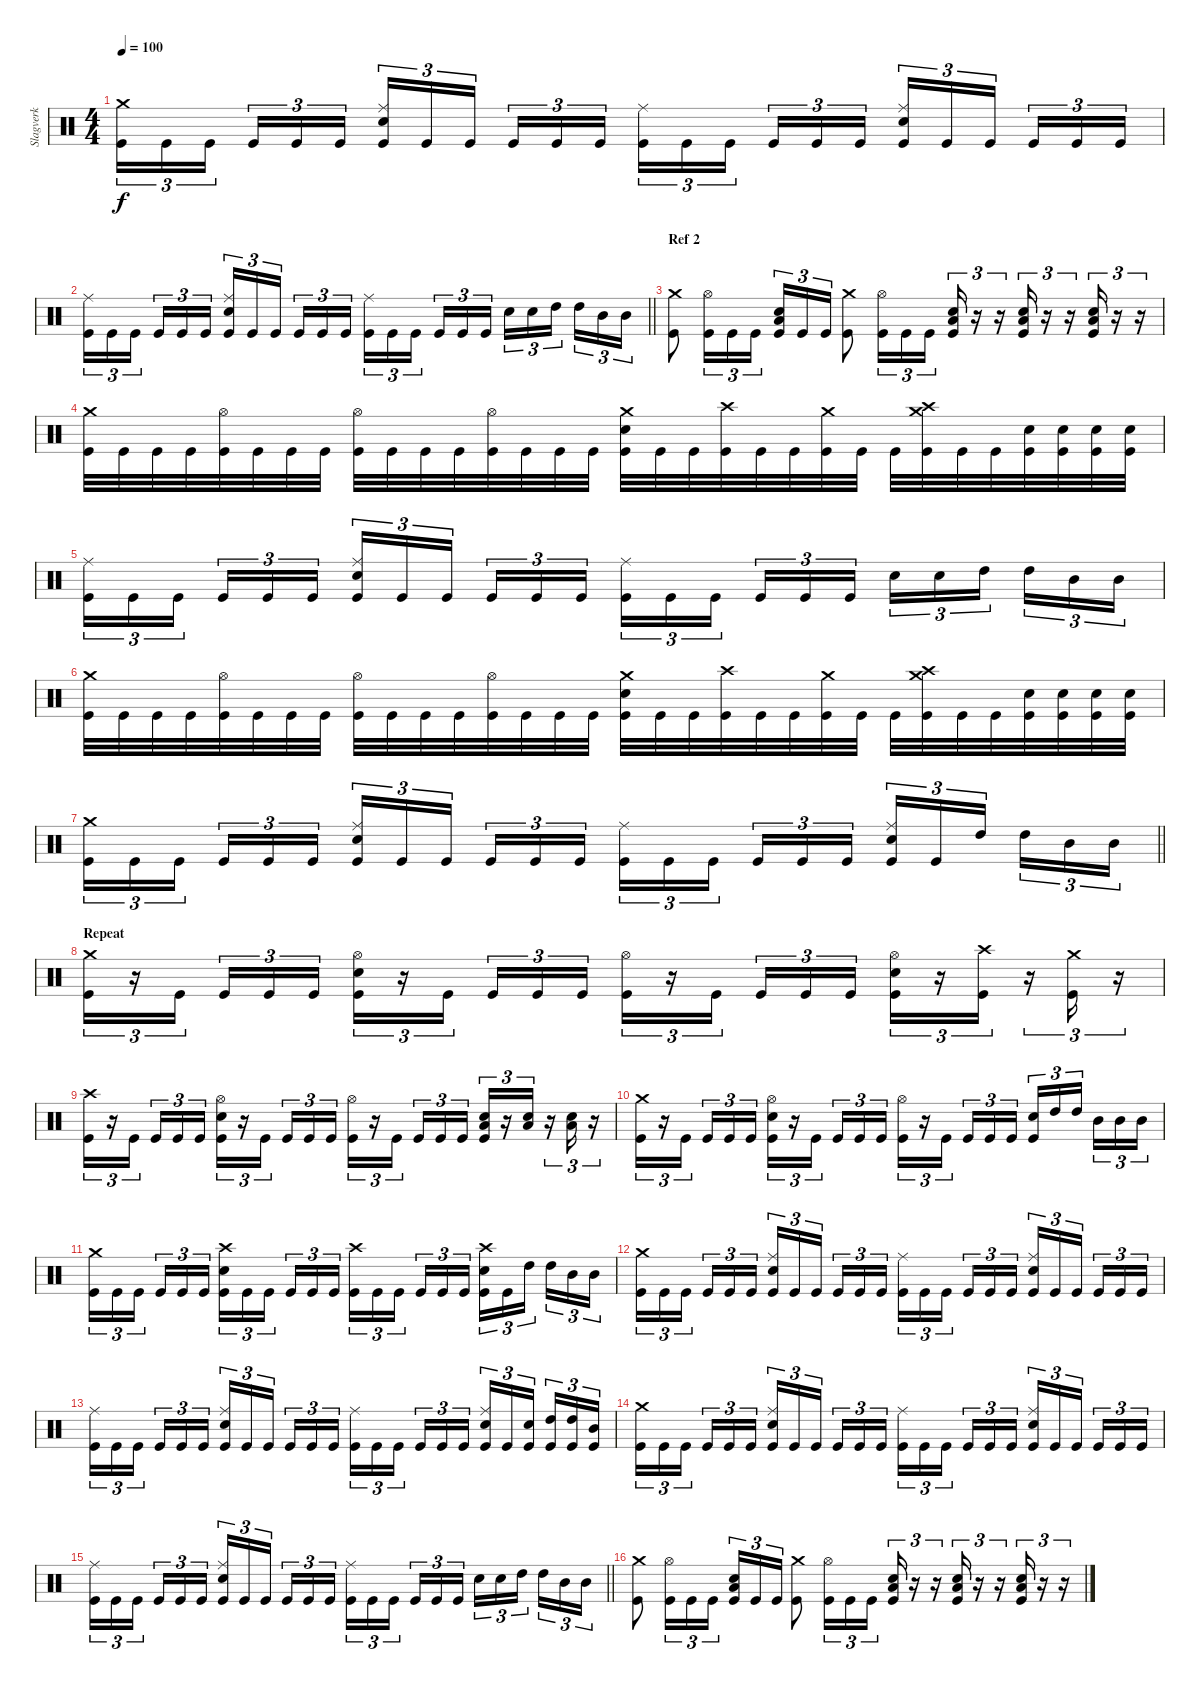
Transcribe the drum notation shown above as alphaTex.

\track ("Slagverk" "Slagverk") {solo instrument percussion}
\staff {score}
\articulation defaults
\ts (4 4)
\tempo 100
\clef neutral
\ks c
("Crash medium (hit)" "Kick (hit)").16{tu (3 2) dy f} "Kick (hit)".16{tu (3 2)} "Kick (hit)".16{tu (3 2) beam splitsecondary} "Kick (hit)".16{tu (3 2)} "Kick (hit)".16{tu (3 2)} "Kick (hit)".16{tu (3 2)} ("Ride (middle)" "Electric Snare (hit)" "Kick (hit)").16{tu (3 2)} "Kick (hit)".16{tu (3 2)} "Kick (hit)".16{tu (3 2) beam splitsecondary} "Kick (hit)".16{tu (3 2)} "Kick (hit)".16{tu (3 2)} "Kick (hit)".16{tu (3 2)} ("Ride (middle)" "Kick (hit)").16{tu (3 2)} "Kick (hit)".16{tu (3 2)} "Kick (hit)".16{tu (3 2) beam splitsecondary} "Kick (hit)".16{tu (3 2)} "Kick (hit)".16{tu (3 2)} "Kick (hit)".16{tu (3 2)} ("Ride (middle)" "Electric Snare (hit)" "Kick (hit)").16{tu (3 2)} "Kick (hit)".16{tu (3 2)} "Kick (hit)".16{tu (3 2) beam splitsecondary} "Kick (hit)".16{tu (3 2)} "Kick (hit)".16{tu (3 2)} "Kick (hit)".16{tu (3 2)} |
\barLineRight lightlight
("Ride (middle)" "Kick (hit)").16{tu (3 2)} "Kick (hit)".16{tu (3 2)} "Kick (hit)".16{tu (3 2) beam splitsecondary} "Kick (hit)".16{tu (3 2)} "Kick (hit)".16{tu (3 2)} "Kick (hit)".16{tu (3 2)} ("Ride (middle)" "Electric Snare (hit)" "Kick (hit)").16{tu (3 2)} "Kick (hit)".16{tu (3 2)} "Kick (hit)".16{tu (3 2) beam splitsecondary} "Kick (hit)".16{tu (3 2)} "Kick (hit)".16{tu (3 2)} "Kick (hit)".16{tu (3 2)} ("Ride (middle)" "Kick (hit)").16{tu (3 2)} "Kick (hit)".16{tu (3 2)} "Kick (hit)".16{tu (3 2) beam splitsecondary} "Kick (hit)".16{tu (3 2)} "Kick (hit)".16{tu (3 2)} "Kick (hit)".16{tu (3 2)} "Electric Snare (hit)".16{tu (3 2)} "Electric Snare (hit)".16{tu (3 2)} "High Tom (hit)".16{tu (3 2) beam splitsecondary} "High Tom (hit)".16{tu (3 2)} "Mid Tom (hit)".16{tu (3 2)} "Mid Tom (hit)".16{tu (3 2)} |
\section ("" "Ref 2")
("Crash medium (hit)" "Kick (hit)").8 ("Hi-Hat (open)" "Kick (hit)").16{tu (3 2)} "Kick (hit)".16{tu (3 2)} "Kick (hit)".16{tu (3 2)} ("Low Tom (hit)" "Electric Snare (hit)" "Kick (hit)").16{tu (3 2)} "Kick (hit)".16{tu (3 2)} "Kick (hit)".16{tu (3 2)} ("Crash medium (hit)" "Kick (hit)").8 ("Hi-Hat (open)" "Kick (hit)").16{tu (3 2)} "Kick (hit)".16{tu (3 2)} "Kick (hit)".16{tu (3 2) beam splitsecondary} ("Low Floor Tom (hit)" "Electric Snare (hit)" "Kick (hit)").16{tu (3 2)} r.16{tu (3 2)} r.16{tu (3 2)} ("Low Floor Tom (hit)" "Electric Snare (hit)" "Kick (hit)").16{tu (3 2)} r.16{tu (3 2)} r.16{tu (3 2)} ("Low Floor Tom (hit)" "Electric Snare (hit)" "Kick (hit)").16{tu (3 2)} r.16{tu (3 2)} r.16{tu (3 2)} |
("Crash medium (hit)" "Kick (hit)").32 "Kick (hit)".32 "Kick (hit)".32 "Kick (hit)".32 ("Hi-Hat (open)" "Kick (hit)").32 "Kick (hit)".32 "Kick (hit)".32 "Kick (hit)".32 ("Hi-Hat (open)" "Kick (hit)").32 "Kick (hit)".32 "Kick (hit)".32 "Kick (hit)".32 ("Hi-Hat (open)" "Kick (hit)").32 "Kick (hit)".32 "Kick (hit)".32 "Kick (hit)".32 ("Crash medium (hit)" "Electric Snare (hit)" "Kick (hit)").32 "Kick (hit)".32 "Kick (hit)".32 ("Crash high (hit)" "Kick (hit)").32 "Kick (hit)".32 "Kick (hit)".32 ("Crash medium (hit)" "Kick (hit)").32 "Kick (hit)".32 "Kick (hit)".32 ("Crash medium (hit)" "Crash high (hit)" "Kick (hit)").32 "Kick (hit)".32 "Kick (hit)".32 ("Snare (hit) 2" "Kick (hit)").32 ("Snare (hit) 2" "Kick (hit)").32 ("Snare (hit) 2" "Kick (hit)").32 ("Snare (hit) 2" "Kick (hit)").32 |
("Ride (middle)" "Kick (hit)").16{tu (3 2)} "Kick (hit)".16{tu (3 2)} "Kick (hit)".16{tu (3 2) beam splitsecondary} "Kick (hit)".16{tu (3 2)} "Kick (hit)".16{tu (3 2)} "Kick (hit)".16{tu (3 2)} ("Ride (middle)" "Electric Snare (hit)" "Kick (hit)").16{tu (3 2)} "Kick (hit)".16{tu (3 2)} "Kick (hit)".16{tu (3 2) beam splitsecondary} "Kick (hit)".16{tu (3 2)} "Kick (hit)".16{tu (3 2)} "Kick (hit)".16{tu (3 2)} ("Ride (middle)" "Kick (hit)").16{tu (3 2)} "Kick (hit)".16{tu (3 2)} "Kick (hit)".16{tu (3 2) beam splitsecondary} "Kick (hit)".16{tu (3 2)} "Kick (hit)".16{tu (3 2)} "Kick (hit)".16{tu (3 2)} "Electric Snare (hit)".16{tu (3 2)} "Electric Snare (hit)".16{tu (3 2)} "High Tom (hit)".16{tu (3 2) beam splitsecondary} "High Tom (hit)".16{tu (3 2)} "Mid Tom (hit)".16{tu (3 2)} "Mid Tom (hit)".16{tu (3 2)} |
("Crash medium (hit)" "Kick (hit)").32 "Kick (hit)".32 "Kick (hit)".32 "Kick (hit)".32 ("Hi-Hat (open)" "Kick (hit)").32 "Kick (hit)".32 "Kick (hit)".32 "Kick (hit)".32 ("Hi-Hat (open)" "Kick (hit)").32 "Kick (hit)".32 "Kick (hit)".32 "Kick (hit)".32 ("Hi-Hat (open)" "Kick (hit)").32 "Kick (hit)".32 "Kick (hit)".32 "Kick (hit)".32 ("Crash medium (hit)" "Electric Snare (hit)" "Kick (hit)").32 "Kick (hit)".32 "Kick (hit)".32 ("Crash high (hit)" "Kick (hit)").32 "Kick (hit)".32 "Kick (hit)".32 ("Crash medium (hit)" "Kick (hit)").32 "Kick (hit)".32 "Kick (hit)".32 ("Crash medium (hit)" "Crash high (hit)" "Kick (hit)").32 "Kick (hit)".32 "Kick (hit)".32 ("Snare (hit) 2" "Kick (hit)").32 ("Snare (hit) 2" "Kick (hit)").32 ("Snare (hit) 2" "Kick (hit)").32 ("Snare (hit) 2" "Kick (hit)").32 |
\barLineRight lightlight
("Crash medium (hit)" "Kick (hit)").16{tu (3 2)} "Kick (hit)".16{tu (3 2)} "Kick (hit)".16{tu (3 2) beam splitsecondary} "Kick (hit)".16{tu (3 2)} "Kick (hit)".16{tu (3 2)} "Kick (hit)".16{tu (3 2)} ("Ride (middle)" "Electric Snare (hit)" "Kick (hit)").16{tu (3 2)} "Kick (hit)".16{tu (3 2)} "Kick (hit)".16{tu (3 2) beam splitsecondary} "Kick (hit)".16{tu (3 2)} "Kick (hit)".16{tu (3 2)} "Kick (hit)".16{tu (3 2)} ("Ride (middle)" "Kick (hit)").16{tu (3 2)} "Kick (hit)".16{tu (3 2)} "Kick (hit)".16{tu (3 2) beam splitsecondary} "Kick (hit)".16{tu (3 2)} "Kick (hit)".16{tu (3 2)} "Kick (hit)".16{tu (3 2)} ("Ride (middle)" "Electric Snare (hit)" "Kick (hit)").16{tu (3 2)} "Kick (hit)".16{tu (3 2)} "High Tom (hit)".16{tu (3 2) beam splitsecondary} "High Tom (hit)".16{tu (3 2)} "Mid Tom (hit)".16{tu (3 2)} "Mid Tom (hit)".16{tu (3 2)} |
\section ("" "Repeat")
("Crash medium (hit)" "Kick (hit)").16{tu (3 2)} r.16{tu (3 2)} "Kick (hit)".16{tu (3 2) beam splitsecondary} "Kick (hit)".16{tu (3 2)} "Kick (hit)".16{tu (3 2)} "Kick (hit)".16{tu (3 2)} ("Hi-Hat (open)" "Electric Snare (hit)" "Kick (hit)").16{tu (3 2)} r.16{tu (3 2)} "Kick (hit)".16{tu (3 2) beam splitsecondary} "Kick (hit)".16{tu (3 2)} "Kick (hit)".16{tu (3 2)} "Kick (hit)".16{tu (3 2)} ("Hi-Hat (open)" "Kick (hit)").16{tu (3 2)} r.16{tu (3 2)} "Kick (hit)".16{tu (3 2) beam splitsecondary} "Kick (hit)".16{tu (3 2)} "Kick (hit)".16{tu (3 2)} "Kick (hit)".16{tu (3 2)} ("Hi-Hat (open)" "Electric Snare (hit)" "Kick (hit)").16{tu (3 2)} r.16{tu (3 2)} ("Crash high (hit)" "Kick (hit)").16{tu (3 2)} r.16{tu (3 2)} ("Crash medium (hit)" "Kick (hit)").16{tu (3 2)} r.16{tu (3 2)} |
("Crash high (hit)" "Kick (hit)").16{tu (3 2)} r.16{tu (3 2)} "Kick (hit)".16{tu (3 2) beam splitsecondary} "Kick (hit)".16{tu (3 2)} "Kick (hit)".16{tu (3 2)} "Kick (hit)".16{tu (3 2)} ("Hi-Hat (open)" "Electric Snare (hit)" "Kick (hit)").16{tu (3 2)} r.16{tu (3 2)} "Kick (hit)".16{tu (3 2) beam splitsecondary} "Kick (hit)".16{tu (3 2)} "Kick (hit)".16{tu (3 2)} "Kick (hit)".16{tu (3 2)} ("Hi-Hat (open)" "Kick (hit)").16{tu (3 2)} r.16{tu (3 2)} "Kick (hit)".16{tu (3 2) beam splitsecondary} "Kick (hit)".16{tu (3 2)} "Kick (hit)".16{tu (3 2)} "Kick (hit)".16{tu (3 2)} ("Low Floor Tom (hit)" "Electric Snare (hit)" "Kick (hit)").16{tu (3 2)} r.16{tu (3 2)} ("Low Floor Tom (hit)" "Electric Snare (hit)").16{tu (3 2)} r.16{tu (3 2)} ("Low Floor Tom (hit)" "Electric Snare (hit)").16{tu (3 2)} r.16{tu (3 2)} |
("Crash medium (hit)" "Kick (hit)").16{tu (3 2)} r.16{tu (3 2)} "Kick (hit)".16{tu (3 2) beam splitsecondary} "Kick (hit)".16{tu (3 2)} "Kick (hit)".16{tu (3 2)} "Kick (hit)".16{tu (3 2)} ("Hi-Hat (open)" "Electric Snare (hit)" "Kick (hit)").16{tu (3 2)} r.16{tu (3 2)} "Kick (hit)".16{tu (3 2) beam splitsecondary} "Kick (hit)".16{tu (3 2)} "Kick (hit)".16{tu (3 2)} "Kick (hit)".16{tu (3 2)} ("Hi-Hat (open)" "Kick (hit)").16{tu (3 2)} r.16{tu (3 2)} "Kick (hit)".16{tu (3 2) beam splitsecondary} "Kick (hit)".16{tu (3 2)} "Kick (hit)".16{tu (3 2)} "Kick (hit)".16{tu (3 2)} ("Electric Snare (hit)" "Kick (hit)").16{tu (3 2)} "High Tom (hit)".16{tu (3 2)} "High Tom (hit)".16{tu (3 2) beam splitsecondary} "Mid Tom (hit)".16{tu (3 2)} "Mid Tom (hit)".16{tu (3 2)} "Mid Tom (hit)".16{tu (3 2)} |
("Crash medium (hit)" "Kick (hit)").16{tu (3 2)} "Kick (hit)".16{tu (3 2)} "Kick (hit)".16{tu (3 2) beam splitsecondary} "Kick (hit)".16{tu (3 2)} "Kick (hit)".16{tu (3 2)} "Kick (hit)".16{tu (3 2)} ("Crash high (hit)" "Electric Snare (hit)" "Kick (hit)").16{tu (3 2)} "Kick (hit)".16{tu (3 2)} "Kick (hit)".16{tu (3 2) beam splitsecondary} "Kick (hit)".16{tu (3 2)} "Kick (hit)".16{tu (3 2)} "Kick (hit)".16{tu (3 2)} ("Crash high (hit)" "Kick (hit)").16{tu (3 2)} "Kick (hit)".16{tu (3 2)} "Kick (hit)".16{tu (3 2) beam splitsecondary} "Kick (hit)".16{tu (3 2)} "Kick (hit)".16{tu (3 2)} "Kick (hit)".16{tu (3 2)} ("Crash high (hit)" "Electric Snare (hit)" "Kick (hit)").16{tu (3 2)} "Kick (hit)".16{tu (3 2)} "High Tom (hit)".16{tu (3 2) beam splitsecondary} "High Tom (hit)".16{tu (3 2)} "Mid Tom (hit)".16{tu (3 2)} "Mid Tom (hit)".16{tu (3 2)} |
("Crash medium (hit)" "Kick (hit)").16{tu (3 2)} "Kick (hit)".16{tu (3 2)} "Kick (hit)".16{tu (3 2) beam splitsecondary} "Kick (hit)".16{tu (3 2)} "Kick (hit)".16{tu (3 2)} "Kick (hit)".16{tu (3 2)} ("Ride (middle)" "Electric Snare (hit)" "Kick (hit)").16{tu (3 2)} "Kick (hit)".16{tu (3 2)} "Kick (hit)".16{tu (3 2) beam splitsecondary} "Kick (hit)".16{tu (3 2)} "Kick (hit)".16{tu (3 2)} "Kick (hit)".16{tu (3 2)} ("Ride (middle)" "Kick (hit)").16{tu (3 2)} "Kick (hit)".16{tu (3 2)} "Kick (hit)".16{tu (3 2) beam splitsecondary} "Kick (hit)".16{tu (3 2)} "Kick (hit)".16{tu (3 2)} "Kick (hit)".16{tu (3 2)} ("Ride (middle)" "Electric Snare (hit)" "Kick (hit)").16{tu (3 2)} "Kick (hit)".16{tu (3 2)} "Kick (hit)".16{tu (3 2) beam splitsecondary} "Kick (hit)".16{tu (3 2)} "Kick (hit)".16{tu (3 2)} "Kick (hit)".16{tu (3 2)} |
("Ride (middle)" "Kick (hit)").16{tu (3 2)} "Kick (hit)".16{tu (3 2)} "Kick (hit)".16{tu (3 2) beam splitsecondary} "Kick (hit)".16{tu (3 2)} "Kick (hit)".16{tu (3 2)} "Kick (hit)".16{tu (3 2)} ("Ride (middle)" "Electric Snare (hit)" "Kick (hit)").16{tu (3 2)} "Kick (hit)".16{tu (3 2)} "Kick (hit)".16{tu (3 2) beam splitsecondary} "Kick (hit)".16{tu (3 2)} "Kick (hit)".16{tu (3 2)} "Kick (hit)".16{tu (3 2)} ("Ride (middle)" "Kick (hit)").16{tu (3 2)} "Kick (hit)".16{tu (3 2)} "Kick (hit)".16{tu (3 2) beam splitsecondary} "Kick (hit)".16{tu (3 2)} "Kick (hit)".16{tu (3 2)} "Kick (hit)".16{tu (3 2)} ("Ride (middle)" "Electric Snare (hit)" "Kick (hit)").16{tu (3 2)} "Kick (hit)".16{tu (3 2)} ("Electric Snare (hit)" "Kick (hit)").16{tu (3 2) beam splitsecondary} ("High Tom (hit)" "Kick (hit)").16{tu (3 2)} ("High Tom (hit)" "Kick (hit)").16{tu (3 2)} ("Mid Tom (hit)" "Kick (hit)").16{tu (3 2)} |
("Crash medium (hit)" "Kick (hit)").16{tu (3 2)} "Kick (hit)".16{tu (3 2)} "Kick (hit)".16{tu (3 2) beam splitsecondary} "Kick (hit)".16{tu (3 2)} "Kick (hit)".16{tu (3 2)} "Kick (hit)".16{tu (3 2)} ("Ride (middle)" "Electric Snare (hit)" "Kick (hit)").16{tu (3 2)} "Kick (hit)".16{tu (3 2)} "Kick (hit)".16{tu (3 2) beam splitsecondary} "Kick (hit)".16{tu (3 2)} "Kick (hit)".16{tu (3 2)} "Kick (hit)".16{tu (3 2)} ("Ride (middle)" "Kick (hit)").16{tu (3 2)} "Kick (hit)".16{tu (3 2)} "Kick (hit)".16{tu (3 2) beam splitsecondary} "Kick (hit)".16{tu (3 2)} "Kick (hit)".16{tu (3 2)} "Kick (hit)".16{tu (3 2)} ("Ride (middle)" "Electric Snare (hit)" "Kick (hit)").16{tu (3 2)} "Kick (hit)".16{tu (3 2)} "Kick (hit)".16{tu (3 2) beam splitsecondary} "Kick (hit)".16{tu (3 2)} "Kick (hit)".16{tu (3 2)} "Kick (hit)".16{tu (3 2)} |
\barLineRight lightlight
("Ride (middle)" "Kick (hit)").16{tu (3 2)} "Kick (hit)".16{tu (3 2)} "Kick (hit)".16{tu (3 2) beam splitsecondary} "Kick (hit)".16{tu (3 2)} "Kick (hit)".16{tu (3 2)} "Kick (hit)".16{tu (3 2)} ("Ride (middle)" "Electric Snare (hit)" "Kick (hit)").16{tu (3 2)} "Kick (hit)".16{tu (3 2)} "Kick (hit)".16{tu (3 2) beam splitsecondary} "Kick (hit)".16{tu (3 2)} "Kick (hit)".16{tu (3 2)} "Kick (hit)".16{tu (3 2)} ("Ride (middle)" "Kick (hit)").16{tu (3 2)} "Kick (hit)".16{tu (3 2)} "Kick (hit)".16{tu (3 2) beam splitsecondary} "Kick (hit)".16{tu (3 2)} "Kick (hit)".16{tu (3 2)} "Kick (hit)".16{tu (3 2)} "Electric Snare (hit)".16{tu (3 2)} "Electric Snare (hit)".16{tu (3 2)} "High Tom (hit)".16{tu (3 2) beam splitsecondary} "High Tom (hit)".16{tu (3 2)} "Mid Tom (hit)".16{tu (3 2)} "Mid Tom (hit)".16{tu (3 2)} |
("Crash medium (hit)" "Kick (hit)").8 ("Hi-Hat (open)" "Kick (hit)").16{tu (3 2)} "Kick (hit)".16{tu (3 2)} "Kick (hit)".16{tu (3 2)} ("Low Tom (hit)" "Electric Snare (hit)" "Kick (hit)").16{tu (3 2)} "Kick (hit)".16{tu (3 2)} "Kick (hit)".16{tu (3 2)} ("Crash medium (hit)" "Kick (hit)").8 ("Hi-Hat (open)" "Kick (hit)").16{tu (3 2)} "Kick (hit)".16{tu (3 2)} "Kick (hit)".16{tu (3 2) beam splitsecondary} ("Low Floor Tom (hit)" "Electric Snare (hit)" "Kick (hit)").16{tu (3 2)} r.16{tu (3 2)} r.16{tu (3 2)} ("Low Floor Tom (hit)" "Electric Snare (hit)" "Kick (hit)").16{tu (3 2)} r.16{tu (3 2)} r.16{tu (3 2)} ("Low Floor Tom (hit)" "Electric Snare (hit)" "Kick (hit)").16{tu (3 2)} r.16{tu (3 2)} r.16{tu (3 2)}
